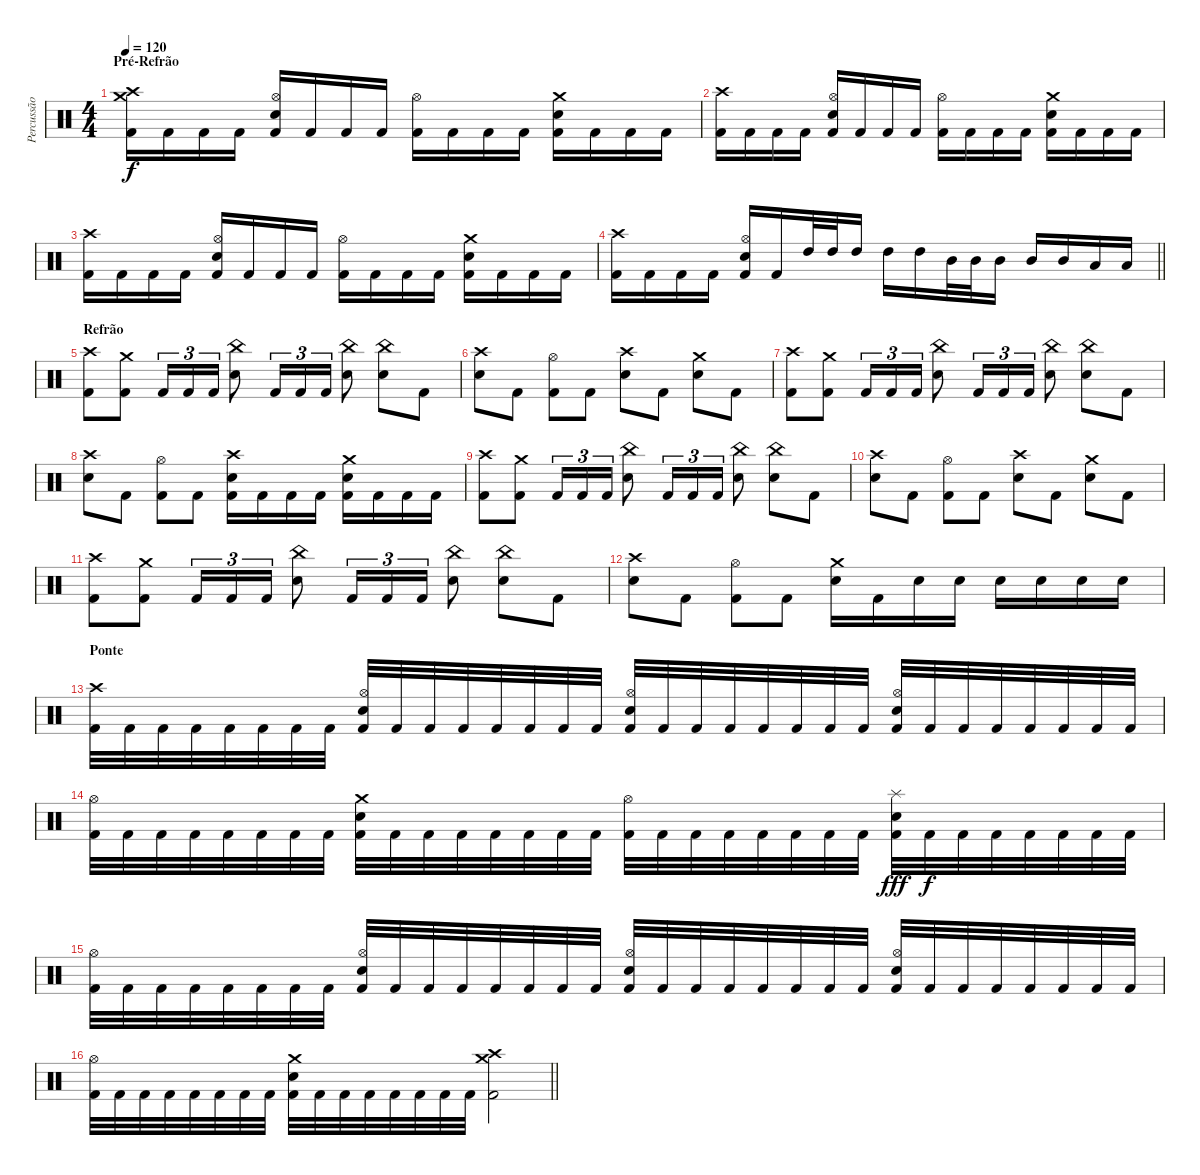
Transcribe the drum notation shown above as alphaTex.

\track ("Percussão" "Percussão") {instrument percussion}
\staff {score}
\articulation defaults
\ts (4 4)
\section ("" "Pré-Refrão")
\tempo 120
\clef neutral
\ks c
("Crash medium (hit)" "Crash high (hit)" "Kick (hit) 2").16{dy f} "Kick (hit) 2".16 "Kick (hit) 2".16 "Kick (hit) 2".16 ("Hi-Hat (open)" "Electric Snare (hit)" "Kick (hit) 2").16 "Kick (hit) 2".16 "Kick (hit) 2".16 "Kick (hit) 2".16 ("Hi-Hat (open)" "Kick (hit) 2").16 "Kick (hit) 2".16 "Kick (hit) 2".16 "Kick (hit) 2".16 ("Crash medium (hit)" "Electric Snare (hit)" "Kick (hit) 2").16 "Kick (hit) 2".16 "Kick (hit) 2".16 "Kick (hit) 2".16 |
("Crash high (hit)" "Kick (hit) 2").16 "Kick (hit) 2".16 "Kick (hit) 2".16 "Kick (hit) 2".16 ("Hi-Hat (open)" "Electric Snare (hit)" "Kick (hit) 2").16 "Kick (hit) 2".16 "Kick (hit) 2".16 "Kick (hit) 2".16 ("Hi-Hat (open)" "Kick (hit) 2").16 "Kick (hit) 2".16 "Kick (hit) 2".16 "Kick (hit) 2".16 ("Crash medium (hit)" "Electric Snare (hit)" "Kick (hit) 2").16 "Kick (hit) 2".16 "Kick (hit) 2".16 "Kick (hit) 2".16 |
("Crash high (hit)" "Kick (hit) 2").16 "Kick (hit) 2".16 "Kick (hit) 2".16 "Kick (hit) 2".16 ("Hi-Hat (open)" "Electric Snare (hit)" "Kick (hit) 2").16 "Kick (hit) 2".16 "Kick (hit) 2".16 "Kick (hit) 2".16 ("Hi-Hat (open)" "Kick (hit) 2").16 "Kick (hit) 2".16 "Kick (hit) 2".16 "Kick (hit) 2".16 ("Crash medium (hit)" "Electric Snare (hit)" "Kick (hit) 2").16 "Kick (hit) 2".16 "Kick (hit) 2".16 "Kick (hit) 2".16 |
\barLineRight lightlight
("Crash high (hit)" "Kick (hit) 2").16 "Kick (hit) 2".16 "Kick (hit) 2".16 "Kick (hit) 2".16 ("Hi-Hat (open)" "Electric Snare (hit)" "Kick (hit) 2").16 "Kick (hit) 2".16 "High Tom (hit)".32 "High Tom (hit)".32 "High Tom (hit)".16 "High Tom (hit)".16 "High Tom (hit)".16 "Mid Tom (hit)".32 "Mid Tom (hit)".32 "Mid Tom (hit)".16 "Mid Tom (hit)".16 "Mid Tom (hit)".16 "Low Tom (hit)".16 "Low Tom (hit)".16 |
\section ("" "Refrão")
("Crash high (hit)" "Kick (hit) 2").8 ("Crash medium (hit)" "Kick (hit) 2").8 "Kick (hit) 2".16{tu (3 2)} "Kick (hit) 2".16{tu (3 2)} "Kick (hit) 2".16{tu (3 2)} ("China (hit)" "Electric Snare (hit)").8 "Kick (hit) 2".16{tu (3 2)} "Kick (hit) 2".16{tu (3 2)} "Kick (hit) 2".16{tu (3 2)} ("China (hit)" "Electric Snare (hit)").8 ("China (hit)" "Electric Snare (hit)").8 "Kick (hit) 2".8 |
("Crash high (hit)" "Electric Snare (hit)").8 "Kick (hit) 2".8 ("Hi-Hat (open)" "Kick (hit) 2").8 "Kick (hit) 2".8 ("Crash high (hit)" "Electric Snare (hit)").8 "Kick (hit) 2".8 ("Crash medium (hit)" "Electric Snare (hit)").8 "Kick (hit) 2".8 |
("Crash high (hit)" "Kick (hit) 2").8 ("Crash medium (hit)" "Kick (hit) 2").8 "Kick (hit) 2".16{tu (3 2)} "Kick (hit) 2".16{tu (3 2)} "Kick (hit) 2".16{tu (3 2)} ("China (hit)" "Electric Snare (hit)").8 "Kick (hit) 2".16{tu (3 2)} "Kick (hit) 2".16{tu (3 2)} "Kick (hit) 2".16{tu (3 2)} ("China (hit)" "Electric Snare (hit)").8 ("China (hit)" "Electric Snare (hit)").8 "Kick (hit) 2".8 |
("Crash high (hit)" "Electric Snare (hit)").8 "Kick (hit) 2".8 ("Hi-Hat (open)" "Kick (hit) 2").8 "Kick (hit) 2".8 ("Crash high (hit)" "Electric Snare (hit)" "Kick (hit) 2").16 "Kick (hit) 2".16 "Kick (hit) 2".16 "Kick (hit) 2".16 ("Crash medium (hit)" "Electric Snare (hit)" "Kick (hit) 2").16 "Kick (hit) 2".16 "Kick (hit) 2".16 "Kick (hit) 2".16 |
("Crash high (hit)" "Kick (hit) 2").8 ("Crash medium (hit)" "Kick (hit) 2").8 "Kick (hit) 2".16{tu (3 2)} "Kick (hit) 2".16{tu (3 2)} "Kick (hit) 2".16{tu (3 2)} ("China (hit)" "Electric Snare (hit)").8 "Kick (hit) 2".16{tu (3 2)} "Kick (hit) 2".16{tu (3 2)} "Kick (hit) 2".16{tu (3 2)} ("China (hit)" "Electric Snare (hit)").8 ("China (hit)" "Electric Snare (hit)").8 "Kick (hit) 2".8 |
("Crash high (hit)" "Electric Snare (hit)").8 "Kick (hit) 2".8 ("Hi-Hat (open)" "Kick (hit) 2").8 "Kick (hit) 2".8 ("Crash high (hit)" "Electric Snare (hit)").8 "Kick (hit) 2".8 ("Crash medium (hit)" "Electric Snare (hit)").8 "Kick (hit) 2".8 |
("Crash high (hit)" "Kick (hit) 2").8 ("Crash medium (hit)" "Kick (hit) 2").8 "Kick (hit) 2".16{tu (3 2)} "Kick (hit) 2".16{tu (3 2)} "Kick (hit) 2".16{tu (3 2)} ("China (hit)" "Electric Snare (hit)").8 "Kick (hit) 2".16{tu (3 2)} "Kick (hit) 2".16{tu (3 2)} "Kick (hit) 2".16{tu (3 2)} ("China (hit)" "Electric Snare (hit)").8 ("China (hit)" "Electric Snare (hit)").8 "Kick (hit) 2".8 |
("Crash high (hit)" "Electric Snare (hit)").8 "Kick (hit) 2".8 ("Hi-Hat (open)" "Kick (hit) 2").8 "Kick (hit) 2".8 ("Crash medium (hit)" "Electric Snare (hit)").16 "Kick (hit) 2".16 "Electric Snare (hit)".16 "Electric Snare (hit)".16 "Electric Snare (hit)".16 "Electric Snare (hit)".16 "Electric Snare (hit)".16 "Electric Snare (hit)".16 |
\section ("" "Ponte")
("Crash high (hit)" "Kick (hit) 2").32 "Kick (hit) 2".32 "Kick (hit) 2".32 "Kick (hit) 2".32 "Kick (hit) 2".32 "Kick (hit) 2".32 "Kick (hit) 2".32 "Kick (hit) 2".32 ("Hi-Hat (open)" "Electric Snare (hit)" "Kick (hit) 2").32 "Kick (hit) 2".32 "Kick (hit) 2".32 "Kick (hit) 2".32 "Kick (hit) 2".32 "Kick (hit) 2".32 "Kick (hit) 2".32 "Kick (hit) 2".32 ("Hi-Hat (open)" "Electric Snare (hit)" "Kick (hit) 2").32 "Kick (hit) 2".32 "Kick (hit) 2".32 "Kick (hit) 2".32 "Kick (hit) 2".32 "Kick (hit) 2".32 "Kick (hit) 2".32 "Kick (hit) 2".32 ("Hi-Hat (open)" "Electric Snare (hit)" "Kick (hit) 2").32 "Kick (hit) 2".32 "Kick (hit) 2".32 "Kick (hit) 2".32 "Kick (hit) 2".32 "Kick (hit) 2".32 "Kick (hit) 2".32 "Kick (hit) 2".32 |
("Hi-Hat (open)" "Kick (hit) 2").32 "Kick (hit) 2".32 "Kick (hit) 2".32 "Kick (hit) 2".32 "Kick (hit) 2".32 "Kick (hit) 2".32 "Kick (hit) 2".32 "Kick (hit) 2".32 ("Crash medium (hit)" "Electric Snare (hit)" "Kick (hit) 2").32 "Kick (hit) 2".32 "Kick (hit) 2".32 "Kick (hit) 2".32 "Kick (hit) 2".32 "Kick (hit) 2".32 "Kick (hit) 2".32 "Kick (hit) 2".32 ("Hi-Hat (open)" "Kick (hit) 2").32 "Kick (hit) 2".32 "Kick (hit) 2".32 "Kick (hit) 2".32 "Kick (hit) 2".32 "Kick (hit) 2".32 "Kick (hit) 2".32 "Kick (hit) 2".32 ("Splash (hit)" "Electric Snare (hit)" "Kick (hit) 2").32{dy fff} "Kick (hit) 2".32{dy f} "Kick (hit) 2".32 "Kick (hit) 2".32 "Kick (hit) 2".32 "Kick (hit) 2".32 "Kick (hit) 2".32 "Kick (hit) 2".32 |
("Hi-Hat (open)" "Kick (hit) 2").32 "Kick (hit) 2".32 "Kick (hit) 2".32 "Kick (hit) 2".32 "Kick (hit) 2".32 "Kick (hit) 2".32 "Kick (hit) 2".32 "Kick (hit) 2".32 ("Hi-Hat (open)" "Electric Snare (hit)" "Kick (hit) 2").32 "Kick (hit) 2".32 "Kick (hit) 2".32 "Kick (hit) 2".32 "Kick (hit) 2".32 "Kick (hit) 2".32 "Kick (hit) 2".32 "Kick (hit) 2".32 ("Hi-Hat (open)" "Electric Snare (hit)" "Kick (hit) 2").32 "Kick (hit) 2".32 "Kick (hit) 2".32 "Kick (hit) 2".32 "Kick (hit) 2".32 "Kick (hit) 2".32 "Kick (hit) 2".32 "Kick (hit) 2".32 ("Hi-Hat (open)" "Electric Snare (hit)" "Kick (hit) 2").32 "Kick (hit) 2".32 "Kick (hit) 2".32 "Kick (hit) 2".32 "Kick (hit) 2".32 "Kick (hit) 2".32 "Kick (hit) 2".32 "Kick (hit) 2".32 |
\barLineRight lightlight
("Hi-Hat (open)" "Kick (hit) 2").32 "Kick (hit) 2".32 "Kick (hit) 2".32 "Kick (hit) 2".32 "Kick (hit) 2".32 "Kick (hit) 2".32 "Kick (hit) 2".32 "Kick (hit) 2".32 ("Crash medium (hit)" "Electric Snare (hit)" "Kick (hit) 2").32 "Kick (hit) 2".32 "Kick (hit) 2".32 "Kick (hit) 2".32 "Kick (hit) 2".32 "Kick (hit) 2".32 "Kick (hit) 2".32 "Kick (hit) 2".32 ("Crash high (hit)" "Crash medium (hit)" "Kick (hit) 2").2
